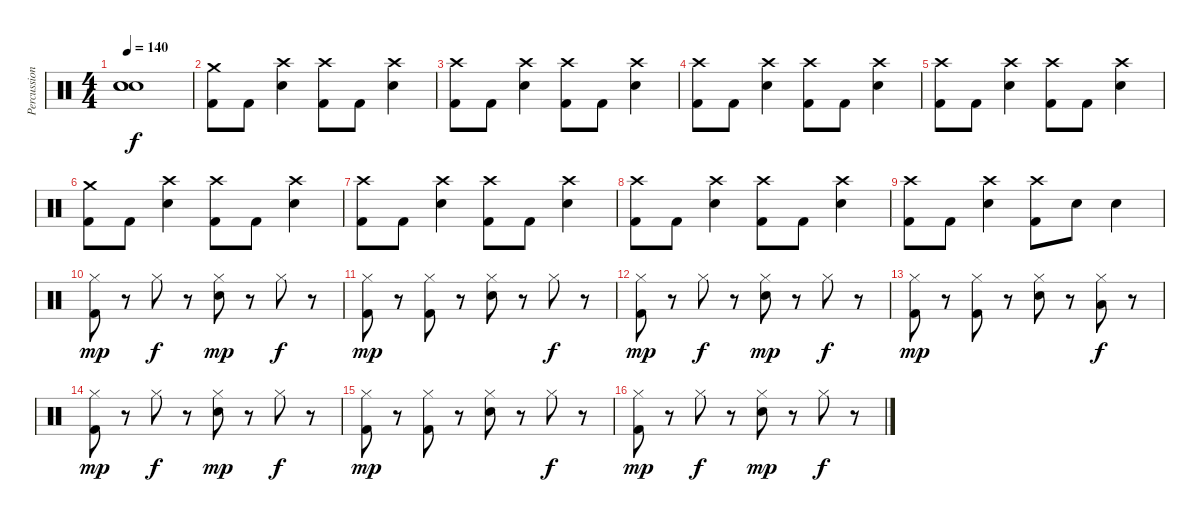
\track ("Percussion" "Percussion") {instrument percussion}
\staff {score}
\articulation defaults
\ts (4 4)
\tempo 140
\clef neutral
\ks c
("Snare (hit)"{t} "Snare (hit)"{t} "Snare (hit)"{t}).1{dy f} |
("Crash medium (hit)" "Kick (hit) 2").8 "Kick (hit) 2".8 ("Crash high (hit)" "Electric Snare (hit)").4 ("Crash high (hit)" "Kick (hit) 2").8 "Kick (hit) 2".8 ("Crash high (hit)" "Electric Snare (hit)").4 |
("Crash high (hit)" "Kick (hit) 2").8 "Kick (hit) 2".8 ("Crash high (hit)" "Electric Snare (hit)").4 ("Crash high (hit)" "Kick (hit) 2").8 "Kick (hit) 2".8 ("Crash high (hit)" "Electric Snare (hit)").4 |
("Crash high (hit)" "Kick (hit) 2").8 "Kick (hit) 2".8 ("Crash high (hit)" "Electric Snare (hit)").4 ("Crash high (hit)" "Kick (hit) 2").8 "Kick (hit) 2".8 ("Crash high (hit)" "Electric Snare (hit)").4 |
("Crash high (hit)" "Kick (hit) 2").8 "Kick (hit) 2".8 ("Crash high (hit)" "Electric Snare (hit)").4 ("Crash high (hit)" "Kick (hit) 2").8 "Kick (hit) 2".8 ("Crash high (hit)" "Electric Snare (hit)").4 |
("Crash medium (hit)" "Kick (hit) 2").8 "Kick (hit) 2".8 ("Crash high (hit)" "Electric Snare (hit)").4 ("Crash high (hit)" "Kick (hit) 2").8 "Kick (hit) 2".8 ("Crash high (hit)" "Electric Snare (hit)").4 |
("Crash high (hit)" "Kick (hit) 2").8 "Kick (hit) 2".8 ("Crash high (hit)" "Electric Snare (hit)").4 ("Crash high (hit)" "Kick (hit) 2").8 "Kick (hit) 2".8 ("Crash high (hit)" "Electric Snare (hit)").4 |
("Crash high (hit)" "Kick (hit) 2").8 "Kick (hit) 2".8 ("Crash high (hit)" "Electric Snare (hit)").4 ("Crash high (hit)" "Kick (hit) 2").8 "Kick (hit) 2".8 ("Crash high (hit)" "Electric Snare (hit)").4 |
("Crash high (hit)" "Kick (hit) 2").8 "Kick (hit) 2".8 ("Crash high (hit)" "Electric Snare (hit)").4 ("Crash high (hit)" "Kick (hit) 2").8 "Electric Snare (hit)".8 "Electric Snare (hit)".4 |
("Hi-Hat (closed)" "Kick (hit) 2").8{dy mp} r.8 "Hi-Hat (closed)".8{dy f} r.8 ("Hi-Hat (closed)" "Snare (hit) 2").8{dy mp} r.8 "Hi-Hat (closed)".8{dy f} r.8 |
("Hi-Hat (closed)" "Kick (hit) 2").8{dy mp} r.8 ("Hi-Hat (closed)" "Kick (hit) 2").8 r.8 ("Hi-Hat (closed)" "Snare (hit) 2").8 r.8 "Hi-Hat (closed)".8{dy f} r.8 |
("Hi-Hat (closed)" "Kick (hit) 2").8{dy mp} r.8 "Hi-Hat (closed)".8{dy f} r.8 ("Hi-Hat (closed)" "Snare (hit) 2").8{dy mp} r.8 "Hi-Hat (closed)".8{dy f} r.8 |
("Hi-Hat (closed)" "Kick (hit) 2").8{dy mp} r.8 ("Hi-Hat (closed)" "Kick (hit) 2").8 r.8 ("Hi-Hat (closed)" "Snare (hit) 2").8 r.8 ("Hi-Hat (closed)" "Low Tom (hit)").8{dy f} r.8 |
("Hi-Hat (closed)" "Kick (hit) 2").8{dy mp} r.8 "Hi-Hat (closed)".8{dy f} r.8 ("Hi-Hat (closed)" "Snare (hit) 2").8{dy mp} r.8 "Hi-Hat (closed)".8{dy f} r.8 |
("Hi-Hat (closed)" "Kick (hit) 2").8{dy mp} r.8 ("Hi-Hat (closed)" "Kick (hit) 2").8 r.8 ("Hi-Hat (closed)" "Snare (hit) 2").8 r.8 "Hi-Hat (closed)".8{dy f} r.8 |
("Hi-Hat (closed)" "Kick (hit) 2").8{dy mp} r.8 "Hi-Hat (closed)".8{dy f} r.8 ("Hi-Hat (closed)" "Snare (hit) 2").8{dy mp} r.8 "Hi-Hat (closed)".8{dy f} r.8
